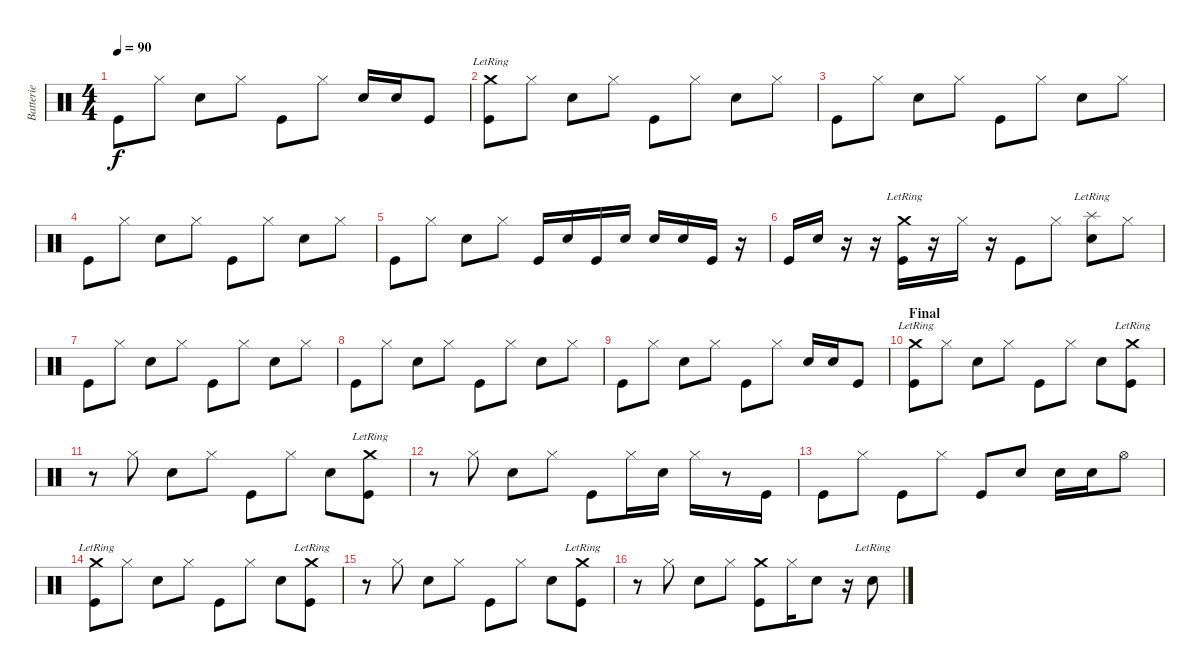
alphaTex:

\track ("Batterie" "Batterie") {instrument percussion}
\staff {score}
\articulation defaults
\ts (4 4)
\tempo 90
\clef neutral
\ks c "Kick (hit)".8{dy f} "Hi-Hat (closed)".8 "Electric Snare (hit)".8 "Hi-Hat (closed)".8 "Kick (hit)".8 "Hi-Hat (closed)".8 "Electric Snare (hit)".16 "Electric Snare (hit)".16 "Kick (hit)".8
|
("Crash medium (hit)"{lr} "Kick (hit)").8 "Hi-Hat (closed)".8 "Electric Snare (hit)".8 "Hi-Hat (closed)".8 "Kick (hit)".8 "Hi-Hat (closed)".8 "Electric Snare (hit)".8 "Hi-Hat (closed)".8 |
"Kick (hit)".8 "Hi-Hat (closed)".8 "Electric Snare (hit)".8 "Hi-Hat (closed)".8 "Kick (hit)".8 "Hi-Hat (closed)".8 "Electric Snare (hit)".8 "Hi-Hat (closed)".8 |
"Kick (hit)".8 "Hi-Hat (closed)".8 "Electric Snare (hit)".8 "Hi-Hat (closed)".8 "Kick (hit)".8 "Hi-Hat (closed)".8 "Electric Snare (hit)".8 "Hi-Hat (closed)".8 |
"Kick (hit)".8 "Hi-Hat (closed)".8 "Electric Snare (hit)".8 "Hi-Hat (closed)".8 "Kick (hit)".16 "Electric Snare (hit)".16 "Kick (hit)".16 "Electric Snare (hit)".16 "Electric Snare (hit)".16 "Electric Snare (hit)".16 "Kick (hit)".16 r.16 |
"Kick (hit)".16 "Electric Snare (hit)".16 r.16 r.16 ("Crash medium (hit)"{lr} "Kick (hit)").16 r.16 "Hi-Hat (closed)".16 r.16 "Kick (hit)".8 "Hi-Hat (closed)".8 ("Electric Snare (hit)" "Splash (hit)"{lr}).8 "Hi-Hat (closed)".8 |
"Kick (hit)".8 "Hi-Hat (closed)".8 "Electric Snare (hit)".8 "Hi-Hat (closed)".8 "Kick (hit)".8 "Hi-Hat (closed)".8 "Electric Snare (hit)".8 "Hi-Hat (closed)".8 |
"Kick (hit)".8 "Hi-Hat (closed)".8 "Electric Snare (hit)".8 "Hi-Hat (closed)".8 "Kick (hit)".8 "Hi-Hat (closed)".8 "Electric Snare (hit)".8 "Hi-Hat (closed)".8 |
"Kick (hit)".8 "Hi-Hat (closed)".8 "Electric Snare (hit)".8 "Hi-Hat (closed)".8 "Kick (hit)".8 "Hi-Hat (closed)".8 "Electric Snare (hit)".16 "Electric Snare (hit)".16 "Kick (hit)".8 |
\section ("" "Final")
("Crash medium (hit)"{lr} "Kick (hit)").8 "Hi-Hat (closed)".8 "Electric Snare (hit)".8 "Hi-Hat (closed)".8 "Kick (hit)".8 "Hi-Hat (closed)".8 "Electric Snare (hit)".8 ("Crash medium (hit)"{lr} "Kick (hit)").8 |
r.8 "Hi-Hat (closed)".8 "Electric Snare (hit)".8 "Hi-Hat (closed)".8 "Kick (hit)".8 "Hi-Hat (closed)".8 "Electric Snare (hit)".8 ("Crash medium (hit)"{lr} "Kick (hit)").8 |
r.8 "Hi-Hat (closed)".8 "Electric Snare (hit)".8 "Hi-Hat (closed)".8 "Kick (hit)".8 "Hi-Hat (closed)".16 "Electric Snare (hit)".16 "Hi-Hat (closed)".16 r.8 "Kick (hit)".16 |
"Kick (hit)".8 "Hi-Hat (closed)".8 "Kick (hit)".8 "Hi-Hat (closed)".8 "Kick (hit)".8 "Electric Snare (hit)".8 "Electric Snare (hit)".16 "Electric Snare (hit)".16 "Hi-Hat (open)".8 |
("Crash medium (hit)"{lr} "Kick (hit)").8 "Hi-Hat (closed)".8 "Electric Snare (hit)".8 "Hi-Hat (closed)".8 "Kick (hit)".8 "Hi-Hat (closed)".8 "Electric Snare (hit)".8 ("Crash medium (hit)"{lr} "Kick (hit)").8 |
r.8 "Hi-Hat (closed)".8 "Electric Snare (hit)".8 "Hi-Hat (closed)".8 "Kick (hit)".8 "Hi-Hat (closed)".8 "Electric Snare (hit)".8 ("Crash medium (hit)"{lr} "Kick (hit)").8 |
r.8 "Hi-Hat (closed)".8 "Electric Snare (hit)".8 "Hi-Hat (closed)".8 ("Crash medium (hit)" "Kick (hit)").8 "Hi-Hat (closed)".16 "Electric Snare (hit)".8 r.16 "Electric Snare (hit)"{lr}.8
